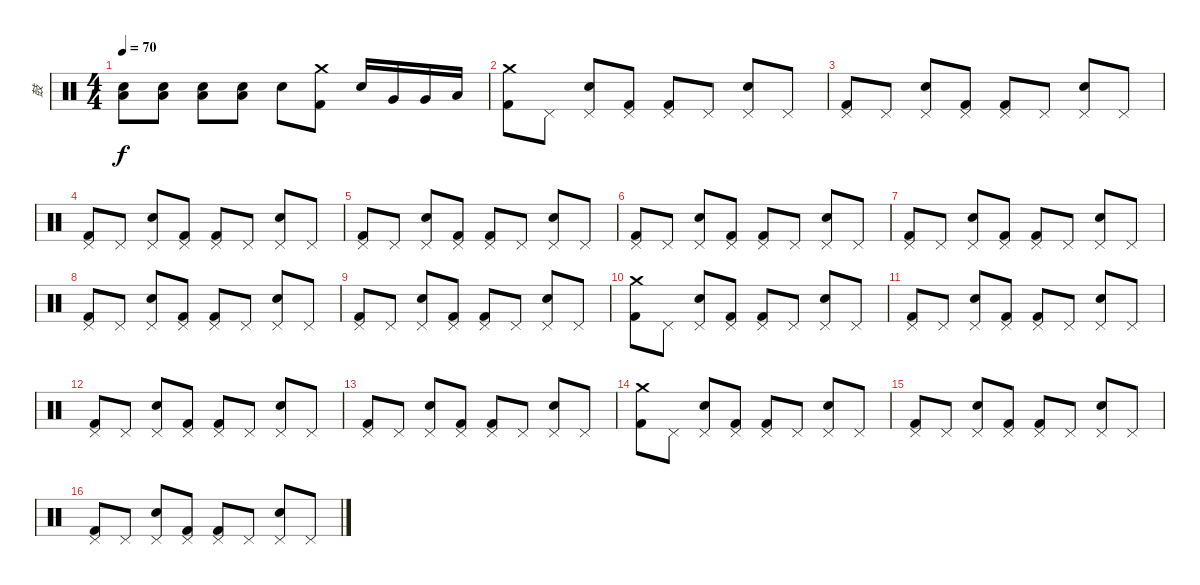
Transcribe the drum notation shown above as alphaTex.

\track ("鼓" "鼓") {instrument percussion}
\staff {score}
\articulation defaults
\ts (4 4)
\tempo 70
\clef neutral
\ks c
("Snare (hit) 2" "Low Floor Tom (hit)").8{dy f} ("Snare (hit) 2" "Low Floor Tom (hit)").8 ("Snare (hit) 2" "Low Floor Tom (hit)").8 ("Snare (hit) 2" "Low Floor Tom (hit)").8 "Snare (hit) 2".8 ("Crash medium (hit)" "Kick (hit) 2").8 "Snare (hit) 2".16 "Very Low Tom (hit)".16 "Very Low Tom (hit)".16 "Low Floor Tom (hit)".16 |
("Crash medium (hit)" "Kick (hit) 2").8 "Pedal Hi-Hat (hit)".8 ("Pedal Hi-Hat (hit)" "Snare (hit) 2").8 ("Pedal Hi-Hat (hit)" "Kick (hit) 2").8 ("Pedal Hi-Hat (hit)" "Kick (hit) 2").8 "Pedal Hi-Hat (hit)".8 ("Pedal Hi-Hat (hit)" "Snare (hit) 2").8 "Pedal Hi-Hat (hit)".8 |
("Pedal Hi-Hat (hit)" "Kick (hit) 2").8 "Pedal Hi-Hat (hit)".8 ("Pedal Hi-Hat (hit)" "Snare (hit) 2").8 ("Pedal Hi-Hat (hit)" "Kick (hit) 2").8 ("Pedal Hi-Hat (hit)" "Kick (hit) 2").8 "Pedal Hi-Hat (hit)".8 ("Pedal Hi-Hat (hit)" "Snare (hit) 2").8 "Pedal Hi-Hat (hit)".8 |
("Pedal Hi-Hat (hit)" "Kick (hit) 2").8 "Pedal Hi-Hat (hit)".8 ("Pedal Hi-Hat (hit)" "Snare (hit) 2").8 ("Pedal Hi-Hat (hit)" "Kick (hit) 2").8 ("Pedal Hi-Hat (hit)" "Kick (hit) 2").8 "Pedal Hi-Hat (hit)".8 ("Pedal Hi-Hat (hit)" "Snare (hit) 2").8 "Pedal Hi-Hat (hit)".8 |
("Pedal Hi-Hat (hit)" "Kick (hit) 2").8 "Pedal Hi-Hat (hit)".8 ("Pedal Hi-Hat (hit)" "Snare (hit) 2").8 ("Pedal Hi-Hat (hit)" "Kick (hit) 2").8 ("Pedal Hi-Hat (hit)" "Kick (hit) 2").8 "Pedal Hi-Hat (hit)".8 ("Pedal Hi-Hat (hit)" "Snare (hit) 2").8 "Pedal Hi-Hat (hit)".8 |
("Pedal Hi-Hat (hit)" "Kick (hit) 2").8 "Pedal Hi-Hat (hit)".8 ("Pedal Hi-Hat (hit)" "Snare (hit) 2").8 ("Pedal Hi-Hat (hit)" "Kick (hit) 2").8 ("Pedal Hi-Hat (hit)" "Kick (hit) 2").8 "Pedal Hi-Hat (hit)".8 ("Pedal Hi-Hat (hit)" "Snare (hit) 2").8 "Pedal Hi-Hat (hit)".8 |
("Pedal Hi-Hat (hit)" "Kick (hit) 2").8 "Pedal Hi-Hat (hit)".8 ("Pedal Hi-Hat (hit)" "Snare (hit) 2").8 ("Pedal Hi-Hat (hit)" "Kick (hit) 2").8 ("Pedal Hi-Hat (hit)" "Kick (hit) 2").8 "Pedal Hi-Hat (hit)".8 ("Pedal Hi-Hat (hit)" "Snare (hit) 2").8 "Pedal Hi-Hat (hit)".8 |
("Pedal Hi-Hat (hit)" "Kick (hit) 2").8 "Pedal Hi-Hat (hit)".8 ("Pedal Hi-Hat (hit)" "Snare (hit) 2").8 ("Pedal Hi-Hat (hit)" "Kick (hit) 2").8 ("Pedal Hi-Hat (hit)" "Kick (hit) 2").8 "Pedal Hi-Hat (hit)".8 ("Pedal Hi-Hat (hit)" "Snare (hit) 2").8 "Pedal Hi-Hat (hit)".8 |
("Pedal Hi-Hat (hit)" "Kick (hit) 2").8 "Pedal Hi-Hat (hit)".8 ("Pedal Hi-Hat (hit)" "Snare (hit) 2").8 ("Pedal Hi-Hat (hit)" "Kick (hit) 2").8 ("Pedal Hi-Hat (hit)" "Kick (hit) 2").8 "Pedal Hi-Hat (hit)".8 ("Pedal Hi-Hat (hit)" "Snare (hit) 2").8 "Pedal Hi-Hat (hit)".8 |
("Crash medium (hit)" "Kick (hit) 2").8 "Pedal Hi-Hat (hit)".8 ("Pedal Hi-Hat (hit)" "Snare (hit) 2").8 ("Pedal Hi-Hat (hit)" "Kick (hit) 2").8 ("Pedal Hi-Hat (hit)" "Kick (hit) 2").8 "Pedal Hi-Hat (hit)".8 ("Pedal Hi-Hat (hit)" "Snare (hit) 2").8 "Pedal Hi-Hat (hit)".8 |
("Pedal Hi-Hat (hit)" "Kick (hit) 2").8 "Pedal Hi-Hat (hit)".8 ("Pedal Hi-Hat (hit)" "Snare (hit) 2").8 ("Pedal Hi-Hat (hit)" "Kick (hit) 2").8 ("Pedal Hi-Hat (hit)" "Kick (hit) 2").8 "Pedal Hi-Hat (hit)".8 ("Pedal Hi-Hat (hit)" "Snare (hit) 2").8 "Pedal Hi-Hat (hit)".8 |
("Pedal Hi-Hat (hit)" "Kick (hit) 2").8 "Pedal Hi-Hat (hit)".8 ("Pedal Hi-Hat (hit)" "Snare (hit) 2").8 ("Pedal Hi-Hat (hit)" "Kick (hit) 2").8 ("Pedal Hi-Hat (hit)" "Kick (hit) 2").8 "Pedal Hi-Hat (hit)".8 ("Pedal Hi-Hat (hit)" "Snare (hit) 2").8 "Pedal Hi-Hat (hit)".8 |
("Pedal Hi-Hat (hit)" "Kick (hit) 2").8 "Pedal Hi-Hat (hit)".8 ("Pedal Hi-Hat (hit)" "Snare (hit) 2").8 ("Pedal Hi-Hat (hit)" "Kick (hit) 2").8 ("Pedal Hi-Hat (hit)" "Kick (hit) 2").8 "Pedal Hi-Hat (hit)".8 ("Pedal Hi-Hat (hit)" "Snare (hit) 2").8 "Pedal Hi-Hat (hit)".8 |
("Crash medium (hit)" "Kick (hit) 2").8 "Pedal Hi-Hat (hit)".8 ("Pedal Hi-Hat (hit)" "Snare (hit) 2").8 ("Pedal Hi-Hat (hit)" "Kick (hit) 2").8 ("Pedal Hi-Hat (hit)" "Kick (hit) 2").8 "Pedal Hi-Hat (hit)".8 ("Pedal Hi-Hat (hit)" "Snare (hit) 2").8 "Pedal Hi-Hat (hit)".8 |
("Pedal Hi-Hat (hit)" "Kick (hit) 2").8 "Pedal Hi-Hat (hit)".8 ("Pedal Hi-Hat (hit)" "Snare (hit) 2").8 ("Pedal Hi-Hat (hit)" "Kick (hit) 2").8 ("Pedal Hi-Hat (hit)" "Kick (hit) 2").8 "Pedal Hi-Hat (hit)".8 ("Pedal Hi-Hat (hit)" "Snare (hit) 2").8 "Pedal Hi-Hat (hit)".8 |
("Pedal Hi-Hat (hit)" "Kick (hit) 2").8 "Pedal Hi-Hat (hit)".8 ("Pedal Hi-Hat (hit)" "Snare (hit) 2").8 ("Pedal Hi-Hat (hit)" "Kick (hit) 2").8 ("Pedal Hi-Hat (hit)" "Kick (hit) 2").8 "Pedal Hi-Hat (hit)".8 ("Pedal Hi-Hat (hit)" "Snare (hit) 2").8 "Pedal Hi-Hat (hit)".8
